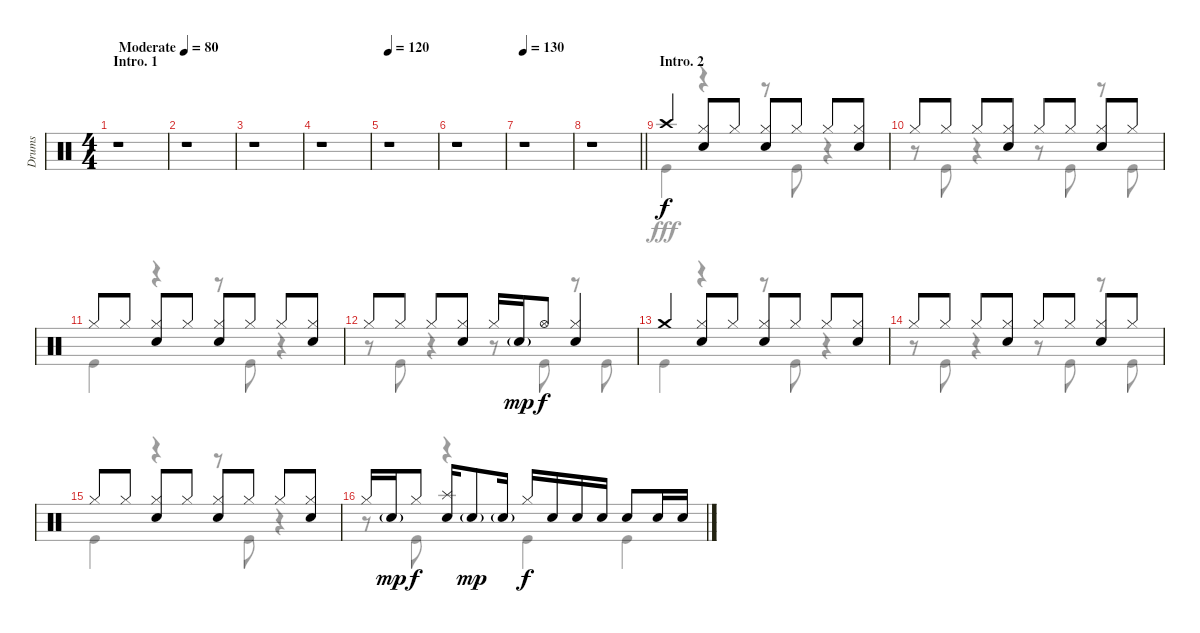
\track ("Drums" "Drums") {instrument percussion}
\staff {score}
\articulation defaults
\voice
\ts (4 4)
\section ("" "Intro. 1")
\tempo (80 "Moderate")
\clef neutral
\ks c
r.1{dy f} |
r.1 |
r.1 |
r.1 |
\tempo 120
r.1 |
r.1 |
\tempo 130
r.1 |
\barLineRight lightlight
r.1 |
\section ("" "Intro. 2")
"Crash high (hit)".4 ("Hi-Hat (closed)" "Snare (hit) 2").8 "Hi-Hat (closed)".8 ("Hi-Hat (closed)" "Snare (hit) 2").8 "Hi-Hat (closed)".8 "Hi-Hat (closed)".8 ("Hi-Hat (closed)" "Snare (hit) 2").8 |
"Hi-Hat (closed)".8 "Hi-Hat (closed)".8 "Hi-Hat (closed)".8 ("Hi-Hat (closed)" "Snare (hit) 2").8 "Hi-Hat (closed)".8 "Hi-Hat (closed)".8 ("Hi-Hat (closed)" "Snare (hit) 2").8 "Hi-Hat (closed)".8 |
"Hi-Hat (closed)".8 "Hi-Hat (closed)".8 ("Hi-Hat (closed)" "Snare (hit) 2").8 "Hi-Hat (closed)".8 ("Hi-Hat (closed)" "Snare (hit) 2").8 "Hi-Hat (closed)".8 "Hi-Hat (closed)".8 ("Hi-Hat (closed)" "Snare (hit) 2").8 |
"Hi-Hat (closed)".8 "Hi-Hat (closed)".8 "Hi-Hat (closed)".8 ("Hi-Hat (closed)" "Snare (hit) 2").8 "Hi-Hat (closed)".16 "Snare (hit) 2"{g}.16{dy mp} "Hi-Hat (open)".8{dy f} ("Hi-Hat (closed)" "Snare (hit) 2").4 |
"Crash medium (hit)".4 ("Hi-Hat (closed)" "Snare (hit) 2").8 "Hi-Hat (closed)".8 ("Hi-Hat (closed)" "Snare (hit) 2").8 "Hi-Hat (closed)".8 "Hi-Hat (closed)".8 ("Hi-Hat (closed)" "Snare (hit) 2").8 |
"Hi-Hat (closed)".8 "Hi-Hat (closed)".8 "Hi-Hat (closed)".8 ("Hi-Hat (closed)" "Snare (hit) 2").8 "Hi-Hat (closed)".8 "Hi-Hat (closed)".8 ("Hi-Hat (closed)" "Snare (hit) 2").8 "Hi-Hat (closed)".8 |
"Hi-Hat (closed)".8 "Hi-Hat (closed)".8 ("Hi-Hat (closed)" "Snare (hit) 2").8 "Hi-Hat (closed)".8 ("Hi-Hat (closed)" "Snare (hit) 2").8 "Hi-Hat (closed)".8 "Hi-Hat (closed)".8 ("Hi-Hat (closed)" "Snare (hit) 2").8 |
"Hi-Hat (closed)".16 "Snare (hit) 2"{g}.16{dy mp} "Hi-Hat (closed)".8{dy f} ("Splash (hit)" "Snare (hit) 2").16 "Snare (hit) 2"{g}.8{dy mp} "Snare (hit) 2"{g}.16 "Hi-Hat (closed)".16{dy f} "Snare (hit) 2".16 "Snare (hit) 2".16 "Snare (hit) 2".16 "Snare (hit) 2".8 "Snare (hit) 2".16 "Snare (hit) 2".16
\voice
\clef neutral
\ottava regular
\simile none
\ks c
r.1{dy fff} |
r.1 |
r.1 |
r.1 |
r.1 |
r.1 |
r.1 |
\barLineRight lightlight
r.1 |
"Kick (hit)".4 r.4 r.8 "Kick (hit)".8 r.4 |
r.8 "Kick (hit)".8 r.4 r.8 "Kick (hit)".8 r.8 "Kick (hit)".8 |
"Kick (hit)".4 r.4 r.8 "Kick (hit)".8 r.4 |
r.8 "Kick (hit)".8 r.4 r.8 "Kick (hit)".8 r.8 "Kick (hit)".8 |
"Kick (hit)".4 r.4 r.8 "Kick (hit)".8 r.4 |
r.8 "Kick (hit)".8 r.4 r.8 "Kick (hit)".8 r.8 "Kick (hit)".8 |
"Kick (hit)".4 r.4 r.8 "Kick (hit)".8 r.4 |
r.8 "Kick (hit)".8 r.4 "Kick (hit)".4 "Kick (hit)".4
